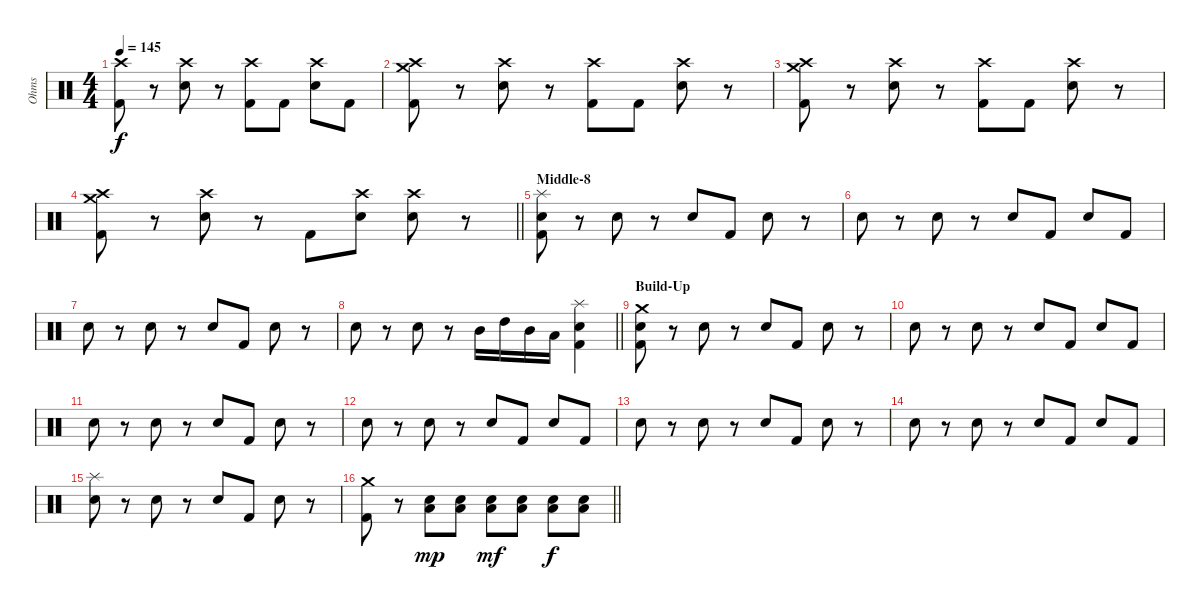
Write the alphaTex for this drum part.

\track ("Ohms" "Ohms") {instrument percussion}
\staff {score}
\articulation defaults
\ts (4 4)
\tempo 145
\clef neutral
\ks c
("Crash high (hit)" "Kick (hit) 2").8{dy f} r.8 ("Crash high (hit)" "Snare (hit) 2").8 r.8 ("Crash high (hit)" "Kick (hit) 2").8 "Kick (hit) 2".8 ("Crash high (hit)" "Snare (hit) 2").8 "Kick (hit) 2".8 |
("Crash high (hit)" "Crash medium (hit)" "Kick (hit) 2").8 r.8 ("Crash high (hit)" "Snare (hit) 2").8 r.8 ("Crash high (hit)" "Kick (hit) 2").8 "Kick (hit) 2".8 ("Crash high (hit)" "Snare (hit) 2").8 r.8 |
("Crash high (hit)" "Crash medium (hit)" "Kick (hit) 2").8 r.8 ("Crash high (hit)" "Snare (hit) 2").8 r.8 ("Crash high (hit)" "Kick (hit) 2").8 "Kick (hit) 2".8 ("Crash high (hit)" "Snare (hit) 2").8 r.8 |
\barLineRight lightlight
("Crash high (hit)" "Crash medium (hit)" "Kick (hit) 2").8 r.8 ("Crash high (hit)" "Snare (hit) 2").8 r.8 "Kick (hit) 2".8 ("Crash high (hit)" "Snare (hit) 2").8 ("Crash high (hit)" "Snare (hit) 2").8 r.8 |
\section ("" "Middle-8")
("Splash (hit)" "Snare (hit) 2" "Kick (hit) 2").8 r.8 "Snare (hit) 2".8 r.8 "Snare (hit) 2".8 "Kick (hit) 2".8 "Snare (hit) 2".8 r.8 |
"Snare (hit) 2".8 r.8 "Snare (hit) 2".8 r.8 "Snare (hit) 2".8 "Kick (hit) 2".8 "Snare (hit) 2".8 "Kick (hit) 2".8 |
"Snare (hit) 2".8 r.8 "Snare (hit) 2".8 r.8 "Snare (hit) 2".8 "Kick (hit) 2".8 "Snare (hit) 2".8 r.8 |
\barLineRight lightlight "Snare (hit) 2".8
r.8 "Snare (hit) 2".8 r.8 "Mid Tom (hit)".16 "High Tom (hit)".16 "Mid Tom (hit)".16 "Low Tom (hit)".16 ("Splash (hit)" "Snare (hit) 2" "Kick (hit) 2").4 |
\section ("" "Build-Up")
("Crash medium (hit)" "Snare (hit) 2" "Kick (hit) 2").8 r.8 "Snare (hit) 2".8 r.8 "Snare (hit) 2".8 "Kick (hit) 2".8 "Snare (hit) 2".8 r.8 |
"Snare (hit) 2".8 r.8 "Snare (hit) 2".8 r.8 "Snare (hit) 2".8 "Kick (hit) 2".8 "Snare (hit) 2".8 "Kick (hit) 2".8 |
"Snare (hit) 2".8 r.8 "Snare (hit) 2".8 r.8 "Snare (hit) 2".8 "Kick (hit) 2".8 "Snare (hit) 2".8 r.8 |
"Snare (hit) 2".8 r.8 "Snare (hit) 2".8 r.8 "Snare (hit) 2".8 "Kick (hit) 2".8 "Snare (hit) 2".8 "Kick (hit) 2".8 |
"Snare (hit) 2".8 r.8 "Snare (hit) 2".8 r.8 "Snare (hit) 2".8 "Kick (hit) 2".8 "Snare (hit) 2".8 r.8 |
"Snare (hit) 2".8 r.8 "Snare (hit) 2".8 r.8 "Snare (hit) 2".8 "Kick (hit) 2".8 "Snare (hit) 2".8 "Kick (hit) 2".8 |
("Splash (hit)" "Snare (hit) 2").8 r.8 "Snare (hit) 2".8 r.8 "Snare (hit) 2".8 "Kick (hit) 2".8 "Snare (hit) 2".8 r.8 |
\barLineRight lightlight
("Crash medium (hit)" "Kick (hit) 2").8 r.8 ("Low Tom (hit)" "Snare (hit) 2").8{dy mp} ("Low Tom (hit)" "Snare (hit) 2").8 ("Low Tom (hit)" "Snare (hit) 2").8{dy mf} ("Low Tom (hit)" "Snare (hit) 2").8 ("Low Tom (hit)" "Snare (hit) 2").8{dy f} ("Low Tom (hit)" "Snare (hit) 2").8
